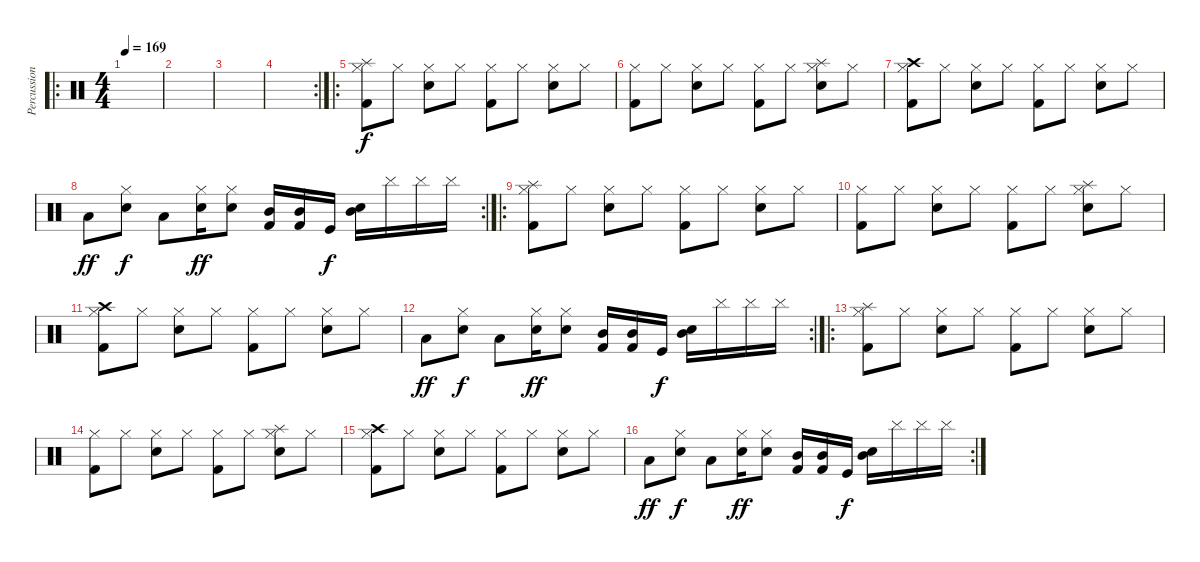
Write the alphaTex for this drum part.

\track ("Percussion" "Percussion") {instrument percussion}
\staff {score}
\articulation defaults
\ro
\ts (4 4)
\tempo 169
\clef neutral
\ks c
|
|
|
\rc 2
|
\ro
("Hi-Hat (closed)" "Kick (hit) 2" "Splash (hit)").8 "Hi-Hat (closed)".8 ("Hi-Hat (closed)" "Snare (hit) 2").8 "Hi-Hat (closed)".8 ("Hi-Hat (closed)" "Kick (hit) 2").8 "Hi-Hat (closed)".8 ("Hi-Hat (closed)" "Snare (hit) 2").8 "Hi-Hat (closed)".8 |
("Hi-Hat (closed)" "Kick (hit) 2").8 "Hi-Hat (closed)".8 ("Hi-Hat (closed)" "Snare (hit) 2").8 "Hi-Hat (closed)".8 ("Hi-Hat (closed)" "Kick (hit) 2").8 "Hi-Hat (closed)".8 ("Hi-Hat (closed)" "Snare (hit) 2" "Splash (hit)").8 "Hi-Hat (closed)".8 |
("Hi-Hat (closed)" "Kick (hit) 2" "Crash high (hit)").8 "Hi-Hat (closed)".8 ("Hi-Hat (closed)" "Snare (hit) 2").8 "Hi-Hat (closed)".8 ("Hi-Hat (closed)" "Kick (hit) 2").8 "Hi-Hat (closed)".8 ("Hi-Hat (closed)" "Snare (hit) 2").8 "Hi-Hat (closed)".8 |
\rc 2 "Low Tom (hit)".8{dy ff}
("Hi-Hat (closed)" "Electric Snare (hit)").8{dy f} "Low Tom (hit)".8 ("Electric Snare (hit)" "Hi-Hat (closed)").16{dy ff} ("Electric Snare (hit)" "Hi-Hat (closed)").8 ("Kick (hit) 2" "Mid Tom (hit)").16 ("Kick (hit) 2" "Mid Tom (hit)").16 "Kick (hit)".16{dy f} ("Electric Snare (hit)" "Mid Tom (hit)").16 "Cymbal (hit)".16 "Cymbal (hit)".16 "Cymbal (hit)".16 |
\ro
("Hi-Hat (closed)" "Kick (hit) 2" "Splash (hit)").8 "Hi-Hat (closed)".8 ("Hi-Hat (closed)" "Snare (hit) 2").8 "Hi-Hat (closed)".8 ("Hi-Hat (closed)" "Kick (hit) 2").8 "Hi-Hat (closed)".8 ("Hi-Hat (closed)" "Snare (hit) 2").8 "Hi-Hat (closed)".8 |
("Hi-Hat (closed)" "Kick (hit) 2").8 "Hi-Hat (closed)".8 ("Hi-Hat (closed)" "Snare (hit) 2").8 "Hi-Hat (closed)".8 ("Hi-Hat (closed)" "Kick (hit) 2").8 "Hi-Hat (closed)".8 ("Hi-Hat (closed)" "Snare (hit) 2" "Splash (hit)").8 "Hi-Hat (closed)".8 |
("Hi-Hat (closed)" "Kick (hit) 2" "Crash high (hit)").8 "Hi-Hat (closed)".8 ("Hi-Hat (closed)" "Snare (hit) 2").8 "Hi-Hat (closed)".8 ("Hi-Hat (closed)" "Kick (hit) 2").8 "Hi-Hat (closed)".8 ("Hi-Hat (closed)" "Snare (hit) 2").8 "Hi-Hat (closed)".8 |
\rc 2 "Low Tom (hit)".8{dy ff}
("Hi-Hat (closed)" "Electric Snare (hit)").8{dy f} "Low Tom (hit)".8 ("Electric Snare (hit)" "Hi-Hat (closed)").16{dy ff} ("Electric Snare (hit)" "Hi-Hat (closed)").8 ("Kick (hit) 2" "Mid Tom (hit)").16 ("Kick (hit) 2" "Mid Tom (hit)").16 "Kick (hit)".16{dy f} ("Electric Snare (hit)" "Mid Tom (hit)").16 "Cymbal (hit)".16 "Cymbal (hit)".16 "Cymbal (hit)".16 |
\ro
("Hi-Hat (closed)" "Kick (hit) 2" "Splash (hit)").8 "Hi-Hat (closed)".8 ("Hi-Hat (closed)" "Snare (hit) 2").8 "Hi-Hat (closed)".8 ("Hi-Hat (closed)" "Kick (hit) 2").8 "Hi-Hat (closed)".8 ("Hi-Hat (closed)" "Snare (hit) 2").8 "Hi-Hat (closed)".8 |
("Hi-Hat (closed)" "Kick (hit) 2").8 "Hi-Hat (closed)".8 ("Hi-Hat (closed)" "Snare (hit) 2").8 "Hi-Hat (closed)".8 ("Hi-Hat (closed)" "Kick (hit) 2").8 "Hi-Hat (closed)".8 ("Hi-Hat (closed)" "Snare (hit) 2" "Splash (hit)").8 "Hi-Hat (closed)".8 |
("Hi-Hat (closed)" "Kick (hit) 2" "Crash high (hit)").8 "Hi-Hat (closed)".8 ("Hi-Hat (closed)" "Snare (hit) 2").8 "Hi-Hat (closed)".8 ("Hi-Hat (closed)" "Kick (hit) 2").8 "Hi-Hat (closed)".8 ("Hi-Hat (closed)" "Snare (hit) 2").8 "Hi-Hat (closed)".8 |
\rc 2 "Low Tom (hit)".8{dy ff}
("Hi-Hat (closed)" "Electric Snare (hit)").8{dy f} "Low Tom (hit)".8 ("Electric Snare (hit)" "Hi-Hat (closed)").16{dy ff} ("Electric Snare (hit)" "Hi-Hat (closed)").8 ("Kick (hit) 2" "Mid Tom (hit)").16 ("Kick (hit) 2" "Mid Tom (hit)").16 "Kick (hit)".16{dy f} ("Electric Snare (hit)" "Mid Tom (hit)").16 "Cymbal (hit)".16 "Cymbal (hit)".16 "Cymbal (hit)".16
